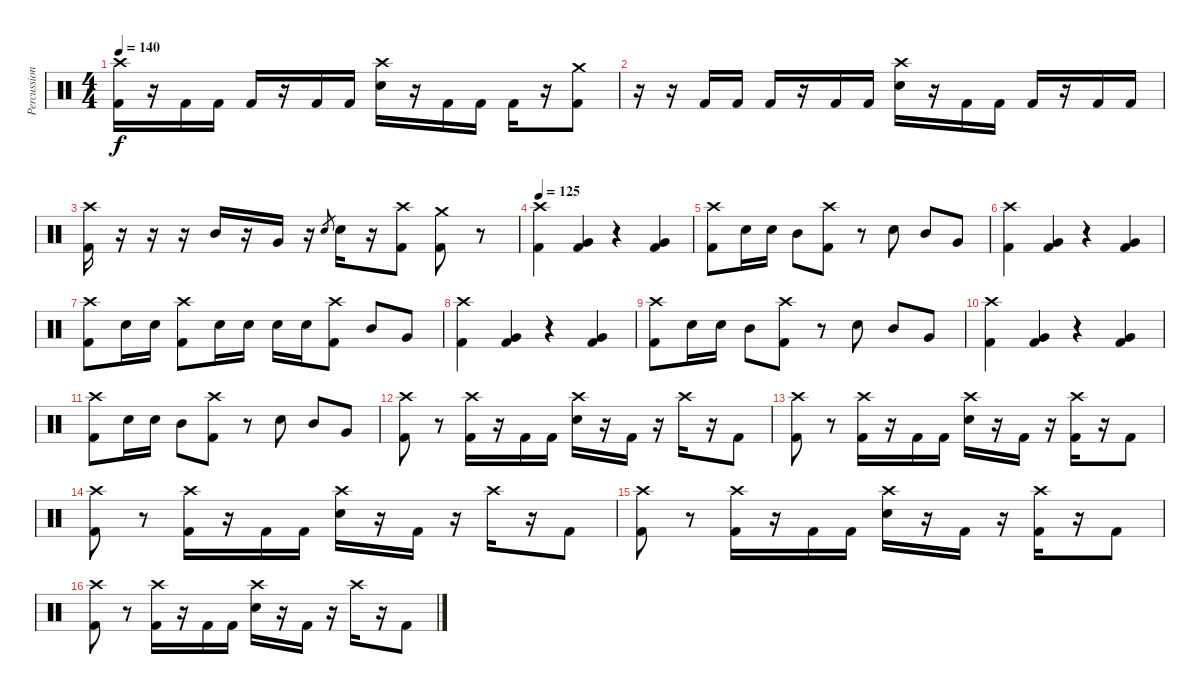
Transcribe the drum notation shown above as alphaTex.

\track ("Percussion" "Percussion") {instrument percussion}
\staff {score}
\articulation defaults
\ts (4 4)
\tempo 140
\clef neutral
\ks c
("Crash high (hit)" "Kick (hit) 2").16{dy f} r.16 "Kick (hit) 2".16 "Kick (hit) 2".16 "Kick (hit) 2".16 r.16 "Kick (hit) 2".16 "Kick (hit) 2".16 ("Crash high (hit)" "Electric Snare (hit)").16 r.16 "Kick (hit) 2".16 "Kick (hit) 2".16 "Kick (hit) 2".16 r.16 ("Crash medium (hit)" "Kick (hit) 2").8 |
r.16 r.16 "Kick (hit) 2".16 "Kick (hit) 2".16 "Kick (hit) 2".16 r.16 "Kick (hit) 2".16 "Kick (hit) 2".16 ("Crash high (hit)" "Electric Snare (hit)").16 r.16 "Kick (hit) 2".16 "Kick (hit) 2".16 "Kick (hit) 2".16 r.16 "Kick (hit) 2".16 "Kick (hit) 2".16 |
("Crash high (hit)" "Kick (hit) 2").16 r.16 r.16 r.16 "Mid Tom (hit)".16 r.16 "Very Low Tom (hit)".16 r.16 "Electric Snare (hit)".8{gr} "Electric Snare (hit)".16 r.16 ("Crash high (hit)" "Kick (hit) 2").8 ("Crash medium (hit)" "Kick (hit) 2").8 r.8 |
\tempo 125
("Crash high (hit)" "Kick (hit) 2").4 ("Very Low Tom (hit)" "Kick (hit) 2").4 r.4 ("Very Low Tom (hit)" "Kick (hit) 2").4 |
("Crash high (hit)" "Kick (hit) 2").8 "Electric Snare (hit)".16 "Electric Snare (hit)".16 "Mid Tom (hit)".8 ("Crash high (hit)" "Kick (hit) 2").8 r.8 "Electric Snare (hit)".8 "Mid Tom (hit)".8 "Very Low Tom (hit)".8 |
("Crash high (hit)" "Kick (hit) 2").4 ("Very Low Tom (hit)" "Kick (hit) 2").4 r.4 ("Very Low Tom (hit)" "Kick (hit) 2").4 |
("Crash high (hit)" "Kick (hit) 2").8 "Electric Snare (hit)".16 "Electric Snare (hit)".16 ("Crash high (hit)" "Kick (hit) 2").8 "Electric Snare (hit)".16 "Electric Snare (hit)".16 "Electric Snare (hit)".16 "Electric Snare (hit)".16 ("Crash high (hit)" "Kick (hit) 2").8 "Mid Tom (hit)".8 "Very Low Tom (hit)".8 |
("Crash high (hit)" "Kick (hit) 2").4 ("Very Low Tom (hit)" "Kick (hit) 2").4 r.4 ("Very Low Tom (hit)" "Kick (hit) 2").4 |
("Crash high (hit)" "Kick (hit) 2").8 "Electric Snare (hit)".16 "Electric Snare (hit)".16 "Mid Tom (hit)".8 ("Crash high (hit)" "Kick (hit) 2").8 r.8 "Electric Snare (hit)".8 "Mid Tom (hit)".8 "Very Low Tom (hit)".8 |
("Crash high (hit)" "Kick (hit) 2").4 ("Very Low Tom (hit)" "Kick (hit) 2").4 r.4 ("Very Low Tom (hit)" "Kick (hit) 2").4 |
("Crash high (hit)" "Kick (hit) 2").8 "Electric Snare (hit)".16 "Electric Snare (hit)".16 "Mid Tom (hit)".8 ("Crash high (hit)" "Kick (hit) 2").8 r.8 "Electric Snare (hit)".8 "Mid Tom (hit)".8 "Very Low Tom (hit)".8 |
("Crash high (hit)" "Kick (hit) 2").8 r.8 ("Crash high (hit)" "Kick (hit) 2").16 r.16 "Kick (hit) 2".16 "Kick (hit) 2".16 ("Crash high (hit)" "Electric Snare (hit)").16 r.16 "Kick (hit) 2".16 r.16 "Crash high (hit)".16 r.16 "Kick (hit) 2".8 |
("Crash high (hit)" "Kick (hit) 2").8 r.8 ("Crash high (hit)" "Kick (hit) 2").16 r.16 "Kick (hit) 2".16 "Kick (hit) 2".16 ("Crash high (hit)" "Electric Snare (hit)").16 r.16 "Kick (hit) 2".16 r.16 ("Crash high (hit)" "Kick (hit) 2").16 r.16 "Kick (hit) 2".8 |
("Crash high (hit)" "Kick (hit) 2").8 r.8 ("Crash high (hit)" "Kick (hit) 2").16 r.16 "Kick (hit) 2".16 "Kick (hit) 2".16 ("Crash high (hit)" "Electric Snare (hit)").16 r.16 "Kick (hit) 2".16 r.16 "Crash high (hit)".16 r.16 "Kick (hit) 2".8 |
("Crash high (hit)" "Kick (hit) 2").8 r.8 ("Crash high (hit)" "Kick (hit) 2").16 r.16 "Kick (hit) 2".16 "Kick (hit) 2".16 ("Crash high (hit)" "Electric Snare (hit)").16 r.16 "Kick (hit) 2".16 r.16 ("Crash high (hit)" "Kick (hit) 2").16 r.16 "Kick (hit) 2".8 |
("Crash high (hit)" "Kick (hit) 2").8 r.8 ("Crash high (hit)" "Kick (hit) 2").16 r.16 "Kick (hit) 2".16 "Kick (hit) 2".16 ("Crash high (hit)" "Electric Snare (hit)").16 r.16 "Kick (hit) 2".16 r.16 "Crash high (hit)".16 r.16 "Kick (hit) 2".8
